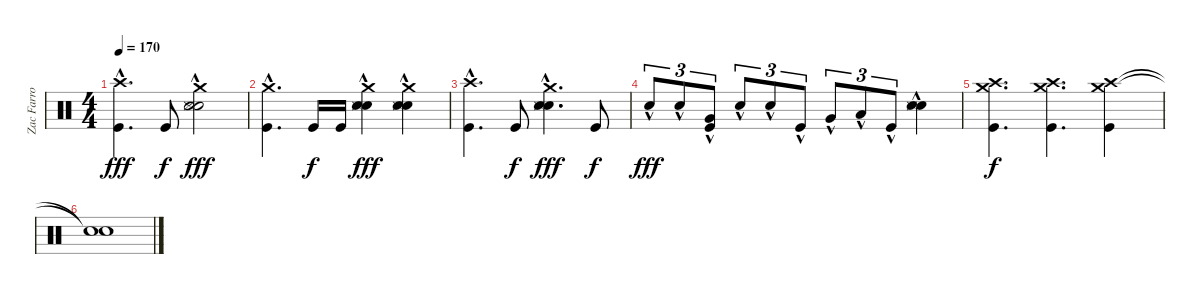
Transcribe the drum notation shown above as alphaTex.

\track ("Zac Farro (Drums)" "Zac Farro ") {instrument percussion}
\staff {score}
\articulation defaults
\ts (4 4)
\tempo 170
\clef neutral
\ks c
("Crash high (hit)"{hac} "Kick (hit)"{hac}).4{d dy fff} "Kick (hit)".8{dy f} ("Crash medium (hit)"{hac} "Snare (hit) 2"{hac} "Snare (side stick) 3"{hac} "Electric Snare (hit)"{hac}).2{dy fff} |
("Crash medium (hit)"{hac} "Kick (hit)"{hac}).4{d} "Kick (hit)".16{dy f} "Kick (hit)".16 ("Crash medium (hit)"{hac} "Snare (hit) 2"{hac} "Snare (side stick) 3"{hac} "Electric Snare (hit)"{hac}).4{dy fff} ("Crash medium (hit)"{hac} "Snare (hit) 2"{hac} "Snare (side stick) 3"{hac} "Electric Snare (hit)"{hac}).4 |
("Crash high (hit)"{hac} "Kick (hit)"{hac}).4{d} "Kick (hit)".8{dy f} ("Crash medium (hit)"{hac} "Snare (hit) 2"{hac} "Snare (side stick) 3"{hac} "Electric Snare (hit)"{hac}).4{d dy fff} "Kick (hit)".8{dy f} |
"Electric Snare (hit)"{hac}.8{tu (3 2) dy fff} "Electric Snare (hit)"{hac}.8{tu (3 2)} ("Very Low Tom (hit)"{hac} "Kick (hit)"{hac}).8{tu (3 2)} "Electric Snare (hit)"{hac}.8{tu (3 2)} "Electric Snare (hit)"{hac}.8{tu (3 2)} "Kick (hit)"{hac}.8{tu (3 2)} "Very Low Tom (hit)"{hac}.8{tu (3 2)} "Low Floor Tom (hit)"{hac}.8{tu (3 2)} "Kick (hit)"{hac}.8{tu (3 2)} ("Snare (hit) 2"{hac} "Snare (side stick) 3"{hac} "Electric Snare (hit)"{hac}).4 |
("Crash high (hit)" "Crash medium (hit)" "Kick (hit)").4{d dy f} ("Crash high (hit)" "Crash medium (hit)" "Kick (hit)").4{d} ("Crash high (hit)" "Crash medium (hit)" "Kick (hit)").4 |
("Snare (hit)"{t} "Snare (hit)"{t}).1
